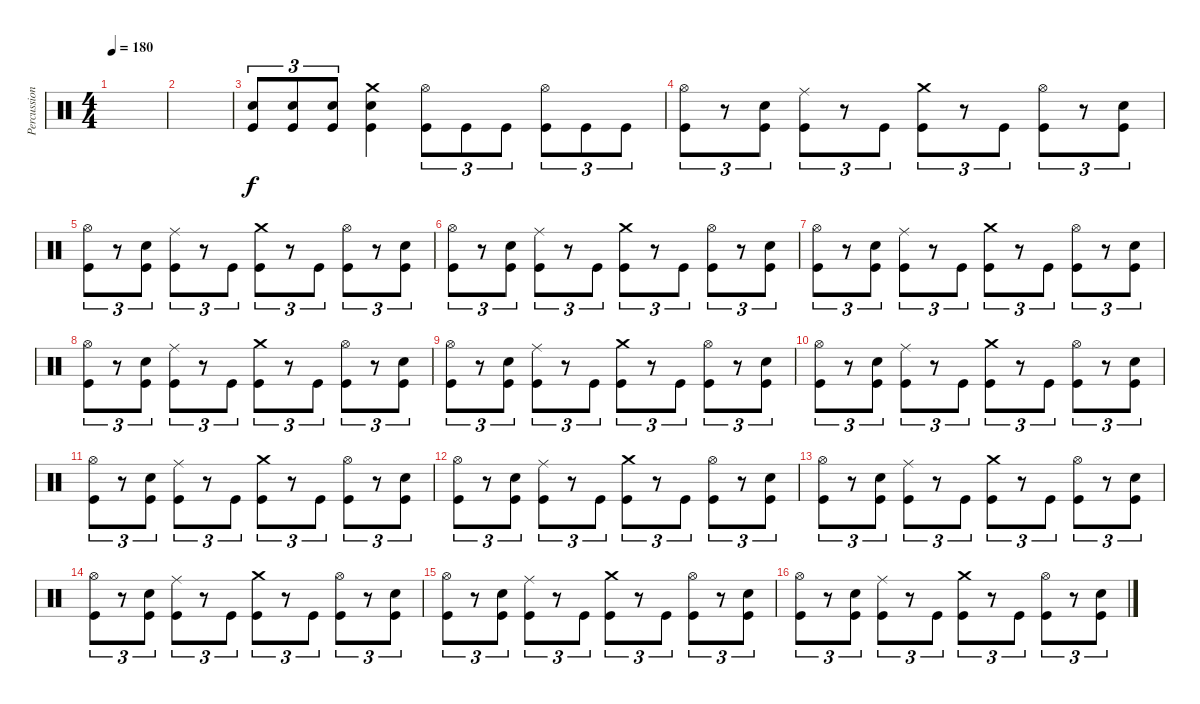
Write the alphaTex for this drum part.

\track ("Percussion" "Percussion") {instrument percussion}
\staff {score}
\articulation defaults
\ts (4 4)
\tempo 180
\clef neutral
\ks c
|
|
("Electric Snare (hit)" "Kick (hit)").8{tu (3 2)} ("Electric Snare (hit)" "Kick (hit)").8{tu (3 2)} ("Electric Snare (hit)" "Kick (hit)").8{tu (3 2)} ("Crash medium (hit)" "Electric Snare (hit)" "Kick (hit)").4 ("Hi-Hat (open)" "Kick (hit)").8{tu (3 2)} "Kick (hit)".8{tu (3 2)} "Kick (hit)".8{tu (3 2)} ("Hi-Hat (open)" "Kick (hit)").8{tu (3 2)} "Kick (hit)".8{tu (3 2)} "Kick (hit)".8{tu (3 2)} |
("Hi-Hat (open)" "Kick (hit)").8{tu (3 2)} r.8{tu (3 2)} ("Electric Snare (hit)" "Kick (hit)").8{tu (3 2)} ("Ride (middle)" "Kick (hit)").8{tu (3 2)} r.8{tu (3 2)} "Kick (hit)".8{tu (3 2)} ("Crash medium (hit)" "Kick (hit)").8{tu (3 2)} r.8{tu (3 2)} "Kick (hit)".8{tu (3 2)} ("Hi-Hat (open)" "Kick (hit)").8{tu (3 2)} r.8{tu (3 2)} ("Electric Snare (hit)" "Kick (hit)").8{tu (3 2)} |
("Hi-Hat (open)" "Kick (hit)").8{tu (3 2)} r.8{tu (3 2)} ("Electric Snare (hit)" "Kick (hit)").8{tu (3 2)} ("Ride (middle)" "Kick (hit)").8{tu (3 2)} r.8{tu (3 2)} "Kick (hit)".8{tu (3 2)} ("Crash medium (hit)" "Kick (hit)").8{tu (3 2)} r.8{tu (3 2)} "Kick (hit)".8{tu (3 2)} ("Hi-Hat (open)" "Kick (hit)").8{tu (3 2)} r.8{tu (3 2)} ("Electric Snare (hit)" "Kick (hit)").8{tu (3 2)} |
("Hi-Hat (open)" "Kick (hit)").8{tu (3 2)} r.8{tu (3 2)} ("Electric Snare (hit)" "Kick (hit)").8{tu (3 2)} ("Ride (middle)" "Kick (hit)").8{tu (3 2)} r.8{tu (3 2)} "Kick (hit)".8{tu (3 2)} ("Crash medium (hit)" "Kick (hit)").8{tu (3 2)} r.8{tu (3 2)} "Kick (hit)".8{tu (3 2)} ("Hi-Hat (open)" "Kick (hit)").8{tu (3 2)} r.8{tu (3 2)} ("Electric Snare (hit)" "Kick (hit)").8{tu (3 2)} |
("Hi-Hat (open)" "Kick (hit)").8{tu (3 2)} r.8{tu (3 2)} ("Electric Snare (hit)" "Kick (hit)").8{tu (3 2)} ("Ride (middle)" "Kick (hit)").8{tu (3 2)} r.8{tu (3 2)} "Kick (hit)".8{tu (3 2)} ("Crash medium (hit)" "Kick (hit)").8{tu (3 2)} r.8{tu (3 2)} "Kick (hit)".8{tu (3 2)} ("Hi-Hat (open)" "Kick (hit)").8{tu (3 2)} r.8{tu (3 2)} ("Electric Snare (hit)" "Kick (hit)").8{tu (3 2)} |
("Hi-Hat (open)" "Kick (hit)").8{tu (3 2)} r.8{tu (3 2)} ("Electric Snare (hit)" "Kick (hit)").8{tu (3 2)} ("Ride (middle)" "Kick (hit)").8{tu (3 2)} r.8{tu (3 2)} "Kick (hit)".8{tu (3 2)} ("Crash medium (hit)" "Kick (hit)").8{tu (3 2)} r.8{tu (3 2)} "Kick (hit)".8{tu (3 2)} ("Hi-Hat (open)" "Kick (hit)").8{tu (3 2)} r.8{tu (3 2)} ("Electric Snare (hit)" "Kick (hit)").8{tu (3 2)} |
("Hi-Hat (open)" "Kick (hit)").8{tu (3 2)} r.8{tu (3 2)} ("Electric Snare (hit)" "Kick (hit)").8{tu (3 2)} ("Ride (middle)" "Kick (hit)").8{tu (3 2)} r.8{tu (3 2)} "Kick (hit)".8{tu (3 2)} ("Crash medium (hit)" "Kick (hit)").8{tu (3 2)} r.8{tu (3 2)} "Kick (hit)".8{tu (3 2)} ("Hi-Hat (open)" "Kick (hit)").8{tu (3 2)} r.8{tu (3 2)} ("Electric Snare (hit)" "Kick (hit)").8{tu (3 2)} |
("Hi-Hat (open)" "Kick (hit)").8{tu (3 2)} r.8{tu (3 2)} ("Electric Snare (hit)" "Kick (hit)").8{tu (3 2)} ("Ride (middle)" "Kick (hit)").8{tu (3 2)} r.8{tu (3 2)} "Kick (hit)".8{tu (3 2)} ("Crash medium (hit)" "Kick (hit)").8{tu (3 2)} r.8{tu (3 2)} "Kick (hit)".8{tu (3 2)} ("Hi-Hat (open)" "Kick (hit)").8{tu (3 2)} r.8{tu (3 2)} ("Electric Snare (hit)" "Kick (hit)").8{tu (3 2)} |
("Hi-Hat (open)" "Kick (hit)").8{tu (3 2)} r.8{tu (3 2)} ("Electric Snare (hit)" "Kick (hit)").8{tu (3 2)} ("Ride (middle)" "Kick (hit)").8{tu (3 2)} r.8{tu (3 2)} "Kick (hit)".8{tu (3 2)} ("Crash medium (hit)" "Kick (hit)").8{tu (3 2)} r.8{tu (3 2)} "Kick (hit)".8{tu (3 2)} ("Hi-Hat (open)" "Kick (hit)").8{tu (3 2)} r.8{tu (3 2)} ("Electric Snare (hit)" "Kick (hit)").8{tu (3 2)} |
("Hi-Hat (open)" "Kick (hit)").8{tu (3 2)} r.8{tu (3 2)} ("Electric Snare (hit)" "Kick (hit)").8{tu (3 2)} ("Ride (middle)" "Kick (hit)").8{tu (3 2)} r.8{tu (3 2)} "Kick (hit)".8{tu (3 2)} ("Crash medium (hit)" "Kick (hit)").8{tu (3 2)} r.8{tu (3 2)} "Kick (hit)".8{tu (3 2)} ("Hi-Hat (open)" "Kick (hit)").8{tu (3 2)} r.8{tu (3 2)} ("Electric Snare (hit)" "Kick (hit)").8{tu (3 2)} |
("Hi-Hat (open)" "Kick (hit)").8{tu (3 2)} r.8{tu (3 2)} ("Electric Snare (hit)" "Kick (hit)").8{tu (3 2)} ("Ride (middle)" "Kick (hit)").8{tu (3 2)} r.8{tu (3 2)} "Kick (hit)".8{tu (3 2)} ("Crash medium (hit)" "Kick (hit)").8{tu (3 2)} r.8{tu (3 2)} "Kick (hit)".8{tu (3 2)} ("Hi-Hat (open)" "Kick (hit)").8{tu (3 2)} r.8{tu (3 2)} ("Electric Snare (hit)" "Kick (hit)").8{tu (3 2)} |
("Hi-Hat (open)" "Kick (hit)").8{tu (3 2)} r.8{tu (3 2)} ("Electric Snare (hit)" "Kick (hit)").8{tu (3 2)} ("Ride (middle)" "Kick (hit)").8{tu (3 2)} r.8{tu (3 2)} "Kick (hit)".8{tu (3 2)} ("Crash medium (hit)" "Kick (hit)").8{tu (3 2)} r.8{tu (3 2)} "Kick (hit)".8{tu (3 2)} ("Hi-Hat (open)" "Kick (hit)").8{tu (3 2)} r.8{tu (3 2)} ("Electric Snare (hit)" "Kick (hit)").8{tu (3 2)} |
("Hi-Hat (open)" "Kick (hit)").8{tu (3 2)} r.8{tu (3 2)} ("Electric Snare (hit)" "Kick (hit)").8{tu (3 2)} ("Ride (middle)" "Kick (hit)").8{tu (3 2)} r.8{tu (3 2)} "Kick (hit)".8{tu (3 2)} ("Crash medium (hit)" "Kick (hit)").8{tu (3 2)} r.8{tu (3 2)} "Kick (hit)".8{tu (3 2)} ("Hi-Hat (open)" "Kick (hit)").8{tu (3 2)} r.8{tu (3 2)} ("Electric Snare (hit)" "Kick (hit)").8{tu (3 2)} |
("Hi-Hat (open)" "Kick (hit)").8{tu (3 2)} r.8{tu (3 2)} ("Electric Snare (hit)" "Kick (hit)").8{tu (3 2)} ("Ride (middle)" "Kick (hit)").8{tu (3 2)} r.8{tu (3 2)} "Kick (hit)".8{tu (3 2)} ("Crash medium (hit)" "Kick (hit)").8{tu (3 2)} r.8{tu (3 2)} "Kick (hit)".8{tu (3 2)} ("Hi-Hat (open)" "Kick (hit)").8{tu (3 2)} r.8{tu (3 2)} ("Electric Snare (hit)" "Kick (hit)").8{tu (3 2)}
